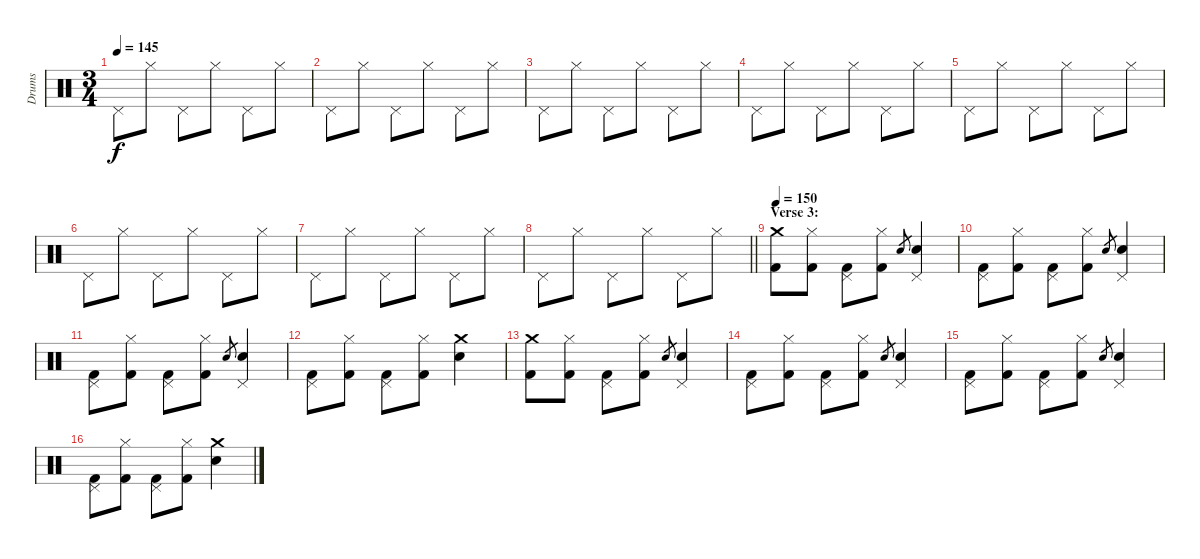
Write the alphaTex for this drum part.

\track ("Drums" "Drums") {instrument percussion}
\staff {score}
\articulation defaults
\ts (3 4)
\tempo 145
\clef neutral
\ks c "Pedal Hi-Hat (hit)".8{dy f} "Hi-Hat (closed)".8 "Pedal Hi-Hat (hit)".8 "Hi-Hat (closed)".8 "Pedal Hi-Hat (hit)".8 "Hi-Hat (closed)".8
|
"Pedal Hi-Hat (hit)".8 "Hi-Hat (closed)".8 "Pedal Hi-Hat (hit)".8 "Hi-Hat (closed)".8 "Pedal Hi-Hat (hit)".8 "Hi-Hat (closed)".8 |
"Pedal Hi-Hat (hit)".8 "Hi-Hat (closed)".8 "Pedal Hi-Hat (hit)".8 "Hi-Hat (closed)".8 "Pedal Hi-Hat (hit)".8 "Hi-Hat (closed)".8 |
"Pedal Hi-Hat (hit)".8 "Hi-Hat (closed)".8 "Pedal Hi-Hat (hit)".8 "Hi-Hat (closed)".8 "Pedal Hi-Hat (hit)".8 "Hi-Hat (closed)".8 |
"Pedal Hi-Hat (hit)".8 "Hi-Hat (closed)".8 "Pedal Hi-Hat (hit)".8 "Hi-Hat (closed)".8 "Pedal Hi-Hat (hit)".8 "Hi-Hat (closed)".8 |
"Pedal Hi-Hat (hit)".8 "Hi-Hat (closed)".8 "Pedal Hi-Hat (hit)".8 "Hi-Hat (closed)".8 "Pedal Hi-Hat (hit)".8 "Hi-Hat (closed)".8 |
"Pedal Hi-Hat (hit)".8 "Hi-Hat (closed)".8 "Pedal Hi-Hat (hit)".8 "Hi-Hat (closed)".8 "Pedal Hi-Hat (hit)".8 "Hi-Hat (closed)".8 |
\barLineRight lightlight "Pedal Hi-Hat (hit)".8 "Hi-Hat (closed)".8 "Pedal Hi-Hat (hit)".8 "Hi-Hat (closed)".8 "Pedal Hi-Hat (hit)".8 "Hi-Hat (closed)".8
|
\section ("" "Verse 3:")
\tempo 150
("Crash medium (hit)" "Kick (hit) 2").8 ("Hi-Hat (closed)" "Kick (hit) 2").8 ("Pedal Hi-Hat (hit)" "Kick (hit) 2").8 ("Hi-Hat (closed)" "Kick (hit) 2").8 "Electric Snare (hit)".8{gr} ("Pedal Hi-Hat (hit)" "Electric Snare (hit)").4 |
("Pedal Hi-Hat (hit)" "Kick (hit) 2").8 ("Hi-Hat (closed)" "Kick (hit) 2").8 ("Pedal Hi-Hat (hit)" "Kick (hit) 2").8 ("Hi-Hat (closed)" "Kick (hit) 2").8 "Electric Snare (hit)".8{gr} ("Pedal Hi-Hat (hit)" "Electric Snare (hit)").4 |
("Pedal Hi-Hat (hit)" "Kick (hit) 2").8 ("Hi-Hat (closed)" "Kick (hit) 2").8 ("Pedal Hi-Hat (hit)" "Kick (hit) 2").8 ("Hi-Hat (closed)" "Kick (hit) 2").8 "Electric Snare (hit)".8{gr} ("Pedal Hi-Hat (hit)" "Electric Snare (hit)").4 |
("Pedal Hi-Hat (hit)" "Kick (hit) 2").8 ("Hi-Hat (closed)" "Kick (hit) 2").8 ("Pedal Hi-Hat (hit)" "Kick (hit) 2").8 ("Hi-Hat (closed)" "Kick (hit) 2").8 ("Crash medium (hit)" "Electric Snare (hit)").4 |
("Crash medium (hit)" "Kick (hit) 2").8 ("Hi-Hat (closed)" "Kick (hit) 2").8 ("Pedal Hi-Hat (hit)" "Kick (hit) 2").8 ("Hi-Hat (closed)" "Kick (hit) 2").8 "Electric Snare (hit)".8{gr} ("Pedal Hi-Hat (hit)" "Electric Snare (hit)").4 |
("Pedal Hi-Hat (hit)" "Kick (hit) 2").8 ("Hi-Hat (closed)" "Kick (hit) 2").8 ("Pedal Hi-Hat (hit)" "Kick (hit) 2").8 ("Hi-Hat (closed)" "Kick (hit) 2").8 "Electric Snare (hit)".8{gr} ("Pedal Hi-Hat (hit)" "Electric Snare (hit)").4 |
("Pedal Hi-Hat (hit)" "Kick (hit) 2").8 ("Hi-Hat (closed)" "Kick (hit) 2").8 ("Pedal Hi-Hat (hit)" "Kick (hit) 2").8 ("Hi-Hat (closed)" "Kick (hit) 2").8 "Electric Snare (hit)".8{gr} ("Pedal Hi-Hat (hit)" "Electric Snare (hit)").4 |
("Pedal Hi-Hat (hit)" "Kick (hit) 2").8 ("Hi-Hat (closed)" "Kick (hit) 2").8 ("Pedal Hi-Hat (hit)" "Kick (hit) 2").8 ("Hi-Hat (closed)" "Kick (hit) 2").8 ("Crash medium (hit)" "Electric Snare (hit)").4
